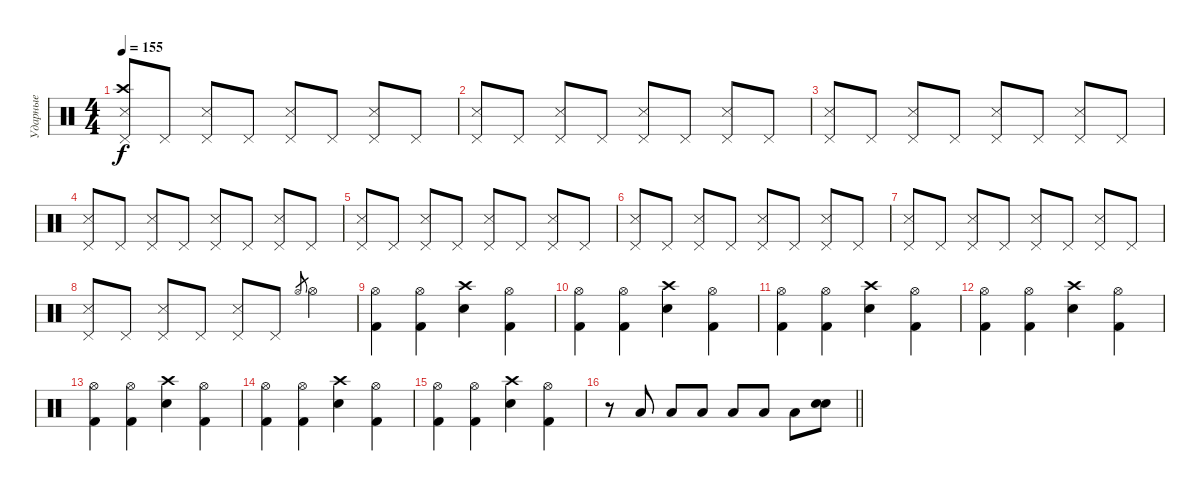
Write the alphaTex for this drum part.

\track ("Ударные" "Ударные") {instrument percussion}
\staff {score}
\articulation defaults
\ts (4 4)
\tempo 155
\clef neutral
\ks c
("Snare (side stick) 3" "Crash high (hit)" "Pedal Hi-Hat (hit)").8{dy f} "Pedal Hi-Hat (hit)".8 ("Snare (side stick) 3" "Pedal Hi-Hat (hit)").8 "Pedal Hi-Hat (hit)".8 ("Snare (side stick) 3" "Pedal Hi-Hat (hit)").8 "Pedal Hi-Hat (hit)".8 ("Snare (side stick) 3" "Pedal Hi-Hat (hit)").8 "Pedal Hi-Hat (hit)".8 |
("Snare (side stick) 3" "Pedal Hi-Hat (hit)").8 "Pedal Hi-Hat (hit)".8 ("Snare (side stick) 3" "Pedal Hi-Hat (hit)").8 "Pedal Hi-Hat (hit)".8 ("Snare (side stick) 3" "Pedal Hi-Hat (hit)").8 "Pedal Hi-Hat (hit)".8 ("Snare (side stick) 3" "Pedal Hi-Hat (hit)").8 "Pedal Hi-Hat (hit)".8 |
("Snare (side stick) 3" "Pedal Hi-Hat (hit)").8 "Pedal Hi-Hat (hit)".8 ("Snare (side stick) 3" "Pedal Hi-Hat (hit)").8 "Pedal Hi-Hat (hit)".8 ("Snare (side stick) 3" "Pedal Hi-Hat (hit)").8 "Pedal Hi-Hat (hit)".8 ("Snare (side stick) 3" "Pedal Hi-Hat (hit)").8 "Pedal Hi-Hat (hit)".8 |
("Snare (side stick) 3" "Pedal Hi-Hat (hit)").8 "Pedal Hi-Hat (hit)".8 ("Snare (side stick) 3" "Pedal Hi-Hat (hit)").8 "Pedal Hi-Hat (hit)".8 ("Snare (side stick) 3" "Pedal Hi-Hat (hit)").8 "Pedal Hi-Hat (hit)".8 ("Snare (side stick) 3" "Pedal Hi-Hat (hit)").8 "Pedal Hi-Hat (hit)".8 |
("Snare (side stick) 3" "Pedal Hi-Hat (hit)").8 "Pedal Hi-Hat (hit)".8 ("Snare (side stick) 3" "Pedal Hi-Hat (hit)").8 "Pedal Hi-Hat (hit)".8 ("Snare (side stick) 3" "Pedal Hi-Hat (hit)").8 "Pedal Hi-Hat (hit)".8 ("Snare (side stick) 3" "Pedal Hi-Hat (hit)").8 "Pedal Hi-Hat (hit)".8 |
("Snare (side stick) 3" "Pedal Hi-Hat (hit)").8 "Pedal Hi-Hat (hit)".8 ("Snare (side stick) 3" "Pedal Hi-Hat (hit)").8 "Pedal Hi-Hat (hit)".8 ("Snare (side stick) 3" "Pedal Hi-Hat (hit)").8 "Pedal Hi-Hat (hit)".8 ("Snare (side stick) 3" "Pedal Hi-Hat (hit)").8 "Pedal Hi-Hat (hit)".8 |
("Snare (side stick) 3" "Pedal Hi-Hat (hit)").8 "Pedal Hi-Hat (hit)".8 ("Snare (side stick) 3" "Pedal Hi-Hat (hit)").8 "Pedal Hi-Hat (hit)".8 ("Snare (side stick) 3" "Pedal Hi-Hat (hit)").8 "Pedal Hi-Hat (hit)".8 ("Snare (side stick) 3" "Pedal Hi-Hat (hit)").8 "Pedal Hi-Hat (hit)".8 |
("Snare (side stick) 3" "Pedal Hi-Hat (hit)").8 "Pedal Hi-Hat (hit)".8 ("Snare (side stick) 3" "Pedal Hi-Hat (hit)").8 "Pedal Hi-Hat (hit)".8 ("Snare (side stick) 3" "Pedal Hi-Hat (hit)").8 "Pedal Hi-Hat (hit)".8 "Hi-Hat (open)".8{gr} "Hi-Hat (open)".4 |
("Kick (hit) 2" "Hi-Hat (open)").4 ("Kick (hit) 2" "Hi-Hat (open)").4 ("Electric Snare (hit)" "Crash high (hit)").4 ("Kick (hit) 2" "Hi-Hat (open)").4 |
("Kick (hit) 2" "Hi-Hat (open)").4 ("Kick (hit) 2" "Hi-Hat (open)").4 ("Electric Snare (hit)" "Crash high (hit)").4 ("Kick (hit) 2" "Hi-Hat (open)").4 |
("Kick (hit) 2" "Hi-Hat (open)").4 ("Kick (hit) 2" "Hi-Hat (open)").4 ("Electric Snare (hit)" "Crash high (hit)").4 ("Kick (hit) 2" "Hi-Hat (open)").4 |
("Kick (hit) 2" "Hi-Hat (open)").4 ("Kick (hit) 2" "Hi-Hat (open)").4 ("Electric Snare (hit)" "Crash high (hit)").4 ("Kick (hit) 2" "Hi-Hat (open)").4 |
("Kick (hit) 2" "Hi-Hat (open)").4 ("Kick (hit) 2" "Hi-Hat (open)").4 ("Electric Snare (hit)" "Crash high (hit)").4 ("Kick (hit) 2" "Hi-Hat (open)").4 |
("Kick (hit) 2" "Hi-Hat (open)").4 ("Kick (hit) 2" "Hi-Hat (open)").4 ("Electric Snare (hit)" "Crash high (hit)").4 ("Kick (hit) 2" "Hi-Hat (open)").4 |
("Kick (hit) 2" "Hi-Hat (open)").4 ("Kick (hit) 2" "Hi-Hat (open)").4 ("Electric Snare (hit)" "Crash high (hit)").4 ("Kick (hit) 2" "Hi-Hat (open)").4 |
\barLineRight lightlight
r.8 "Low Floor Tom (hit)".8 "Low Floor Tom (hit)".8 "Low Floor Tom (hit)".8 "Low Floor Tom (hit)".8 "Low Floor Tom (hit)".8 "Low Floor Tom (hit)".8 ("Electric Snare (hit)" "Electric Snare (hit)").8
